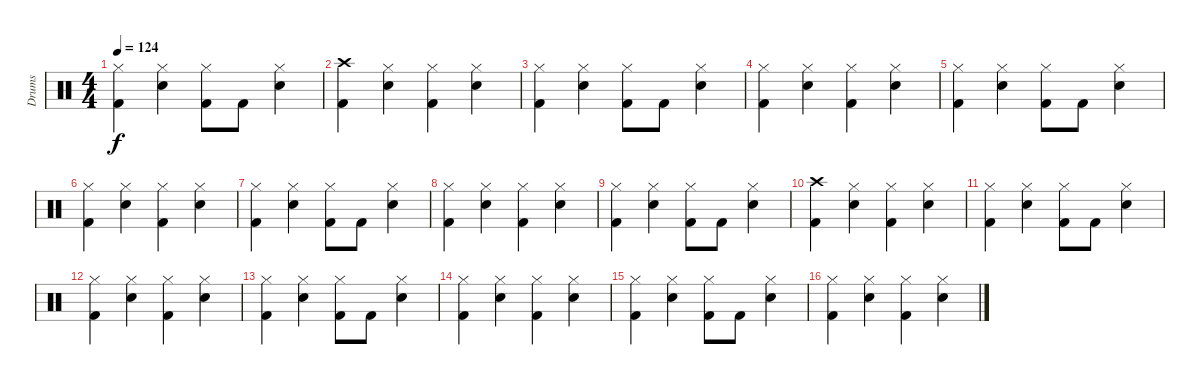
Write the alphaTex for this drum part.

\track ("Drums" "Drums") {instrument percussion}
\staff {score}
\articulation defaults
\ts (4 4)
\tempo 124
\clef neutral
\ks c
("Hi-Hat (closed)" "Kick (hit) 2").4{dy f} ("Hi-Hat (closed)" "Snare (hit) 2").4 ("Hi-Hat (closed)" "Kick (hit) 2").8 "Kick (hit) 2".8 ("Hi-Hat (closed)" "Snare (hit) 2").4 |
("Crash high (hit)" "Kick (hit) 2").4 ("Hi-Hat (closed)" "Snare (hit) 2").4 ("Hi-Hat (closed)" "Kick (hit) 2").4 ("Hi-Hat (closed)" "Snare (hit) 2").4 |
("Hi-Hat (closed)" "Kick (hit) 2").4 ("Hi-Hat (closed)" "Snare (hit) 2").4 ("Hi-Hat (closed)" "Kick (hit) 2").8 "Kick (hit) 2".8 ("Hi-Hat (closed)" "Snare (hit) 2").4 |
("Hi-Hat (closed)" "Kick (hit) 2").4 ("Hi-Hat (closed)" "Snare (hit) 2").4 ("Hi-Hat (closed)" "Kick (hit) 2").4 ("Hi-Hat (closed)" "Snare (hit) 2").4 |
("Hi-Hat (closed)" "Kick (hit) 2").4 ("Hi-Hat (closed)" "Snare (hit) 2").4 ("Hi-Hat (closed)" "Kick (hit) 2").8 "Kick (hit) 2".8 ("Hi-Hat (closed)" "Snare (hit) 2").4 |
("Hi-Hat (closed)" "Kick (hit) 2").4 ("Hi-Hat (closed)" "Snare (hit) 2").4 ("Hi-Hat (closed)" "Kick (hit) 2").4 ("Hi-Hat (closed)" "Snare (hit) 2").4 |
("Hi-Hat (closed)" "Kick (hit) 2").4 ("Hi-Hat (closed)" "Snare (hit) 2").4 ("Hi-Hat (closed)" "Kick (hit) 2").8 "Kick (hit) 2".8 ("Hi-Hat (closed)" "Snare (hit) 2").4 |
("Hi-Hat (closed)" "Kick (hit) 2").4 ("Hi-Hat (closed)" "Snare (hit) 2").4 ("Hi-Hat (closed)" "Kick (hit) 2").4 ("Hi-Hat (closed)" "Snare (hit) 2").4 |
("Hi-Hat (closed)" "Kick (hit) 2").4 ("Hi-Hat (closed)" "Snare (hit) 2").4 ("Hi-Hat (closed)" "Kick (hit) 2").8 "Kick (hit) 2".8 ("Hi-Hat (closed)" "Snare (hit) 2").4 |
("Crash high (hit)" "Kick (hit) 2").4 ("Hi-Hat (closed)" "Snare (hit) 2").4 ("Hi-Hat (closed)" "Kick (hit) 2").4 ("Hi-Hat (closed)" "Snare (hit) 2").4 |
("Hi-Hat (closed)" "Kick (hit) 2").4 ("Hi-Hat (closed)" "Snare (hit) 2").4 ("Hi-Hat (closed)" "Kick (hit) 2").8 "Kick (hit) 2".8 ("Hi-Hat (closed)" "Snare (hit) 2").4 |
("Hi-Hat (closed)" "Kick (hit) 2").4 ("Hi-Hat (closed)" "Snare (hit) 2").4 ("Hi-Hat (closed)" "Kick (hit) 2").4 ("Hi-Hat (closed)" "Snare (hit) 2").4 |
("Hi-Hat (closed)" "Kick (hit) 2").4 ("Hi-Hat (closed)" "Snare (hit) 2").4 ("Hi-Hat (closed)" "Kick (hit) 2").8 "Kick (hit) 2".8 ("Hi-Hat (closed)" "Snare (hit) 2").4 |
("Hi-Hat (closed)" "Kick (hit) 2").4 ("Hi-Hat (closed)" "Snare (hit) 2").4 ("Hi-Hat (closed)" "Kick (hit) 2").4 ("Hi-Hat (closed)" "Snare (hit) 2").4 |
("Hi-Hat (closed)" "Kick (hit) 2").4 ("Hi-Hat (closed)" "Snare (hit) 2").4 ("Hi-Hat (closed)" "Kick (hit) 2").8 "Kick (hit) 2".8 ("Hi-Hat (closed)" "Snare (hit) 2").4 |
("Hi-Hat (closed)" "Kick (hit) 2").4 ("Hi-Hat (closed)" "Snare (hit) 2").4 ("Hi-Hat (closed)" "Kick (hit) 2").4 ("Hi-Hat (closed)" "Snare (hit) 2").4
